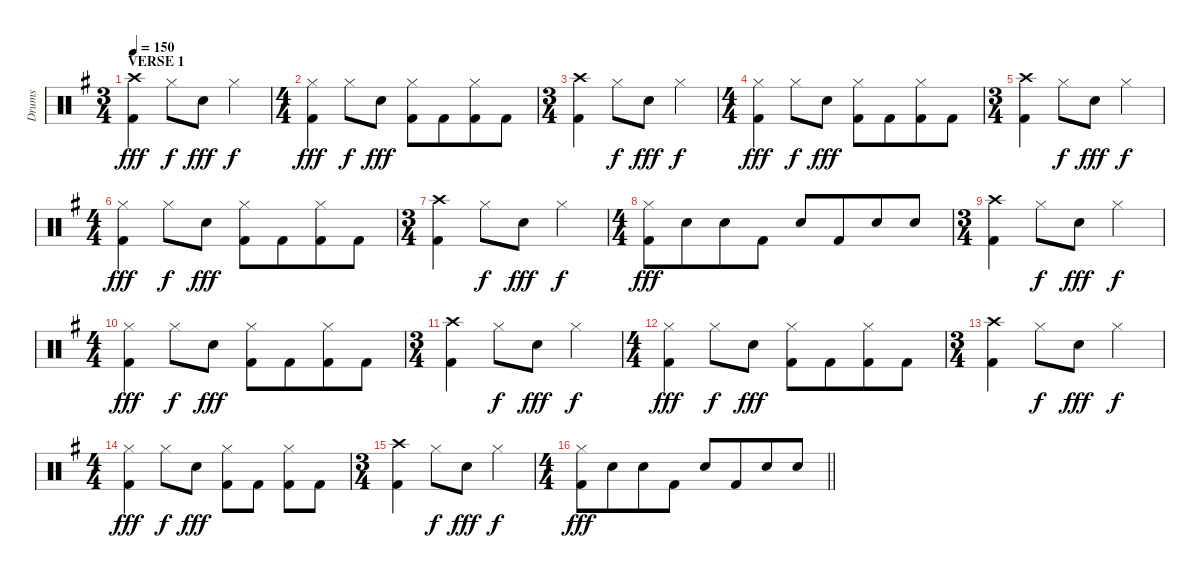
\track ("Drums" "Drums") {instrument percussion}
\staff {score}
\articulation defaults
\ts (3 4)
\section ("" "VERSE 1")
\tempo 150
\clef neutral
\ks eminor
("Crash high (hit)" "Kick (hit) 2").4{dy fff} "Hi-Hat (closed)".8{dy f} "Snare (hit) 2".8{dy fff} "Hi-Hat (closed)".4{dy f} |
\ts (4 4)
("Hi-Hat (closed)" "Kick (hit) 2").4{dy fff} "Hi-Hat (closed)".8{dy f} "Snare (hit) 2".8{dy fff} ("Hi-Hat (closed)" "Kick (hit) 2").8 "Kick (hit) 2".8{beam merge} ("Hi-Hat (closed)" "Kick (hit) 2").8 "Kick (hit) 2".8 |
\ts (3 4)
("Crash high (hit)" "Kick (hit) 2").4 "Hi-Hat (closed)".8{dy f} "Snare (hit) 2".8{dy fff} "Hi-Hat (closed)".4{dy f} |
\ts (4 4)
("Hi-Hat (closed)" "Kick (hit) 2").4{dy fff} "Hi-Hat (closed)".8{dy f} "Snare (hit) 2".8{dy fff} ("Hi-Hat (closed)" "Kick (hit) 2").8 "Kick (hit) 2".8{beam merge} ("Hi-Hat (closed)" "Kick (hit) 2").8 "Kick (hit) 2".8 |
\ts (3 4)
("Crash high (hit)" "Kick (hit) 2").4 "Hi-Hat (closed)".8{dy f} "Snare (hit) 2".8{dy fff} "Hi-Hat (closed)".4{dy f} |
\ts (4 4)
("Hi-Hat (closed)" "Kick (hit) 2").4{dy fff} "Hi-Hat (closed)".8{dy f} "Snare (hit) 2".8{dy fff} ("Hi-Hat (closed)" "Kick (hit) 2").8 "Kick (hit) 2".8{beam merge} ("Hi-Hat (closed)" "Kick (hit) 2").8 "Kick (hit) 2".8 |
\ts (3 4)
("Crash high (hit)" "Kick (hit) 2").4 "Hi-Hat (closed)".8{dy f} "Snare (hit) 2".8{dy fff} "Hi-Hat (closed)".4{dy f} |
\ts (4 4)
("Hi-Hat (closed)" "Kick (hit) 2").8{dy fff} "Snare (hit) 2".8{beam merge} "Snare (hit) 2".8 "Kick (hit) 2".8 "Snare (hit) 2".8 "Kick (hit) 2".8{beam merge} "Snare (hit) 2".8 "Snare (hit) 2".8 |
\ts (3 4)
("Crash high (hit)" "Kick (hit) 2").4 "Hi-Hat (closed)".8{dy f} "Snare (hit) 2".8{dy fff} "Hi-Hat (closed)".4{dy f} |
\ts (4 4)
("Hi-Hat (closed)" "Kick (hit) 2").4{dy fff} "Hi-Hat (closed)".8{dy f} "Snare (hit) 2".8{dy fff} ("Hi-Hat (closed)" "Kick (hit) 2").8 "Kick (hit) 2".8{beam merge} ("Hi-Hat (closed)" "Kick (hit) 2").8 "Kick (hit) 2".8 |
\ts (3 4)
("Crash high (hit)" "Kick (hit) 2").4 "Hi-Hat (closed)".8{dy f} "Snare (hit) 2".8{dy fff} "Hi-Hat (closed)".4{dy f} |
\ts (4 4)
("Hi-Hat (closed)" "Kick (hit) 2").4{dy fff} "Hi-Hat (closed)".8{dy f} "Snare (hit) 2".8{dy fff} ("Hi-Hat (closed)" "Kick (hit) 2").8 "Kick (hit) 2".8{beam merge} ("Hi-Hat (closed)" "Kick (hit) 2").8 "Kick (hit) 2".8 |
\ts (3 4)
("Crash high (hit)" "Kick (hit) 2").4 "Hi-Hat (closed)".8{dy f} "Snare (hit) 2".8{dy fff} "Hi-Hat (closed)".4{dy f} |
\ts (4 4)
("Hi-Hat (closed)" "Kick (hit) 2").4{dy fff} "Hi-Hat (closed)".8{dy f} "Snare (hit) 2".8{dy fff} ("Hi-Hat (closed)" "Kick (hit) 2").8 "Kick (hit) 2".8 ("Hi-Hat (closed)" "Kick (hit) 2").8 "Kick (hit) 2".8 |
\ts (3 4)
("Crash high (hit)" "Kick (hit) 2").4 "Hi-Hat (closed)".8{dy f} "Snare (hit) 2".8{dy fff} "Hi-Hat (closed)".4{dy f} |
\ts (4 4)
\barLineRight lightlight
("Hi-Hat (closed)" "Kick (hit) 2").8{dy fff} "Snare (hit) 2".8{beam merge} "Snare (hit) 2".8 "Kick (hit) 2".8 "Snare (hit) 2".8 "Kick (hit) 2".8{beam merge} "Snare (hit) 2".8 "Snare (hit) 2".8
